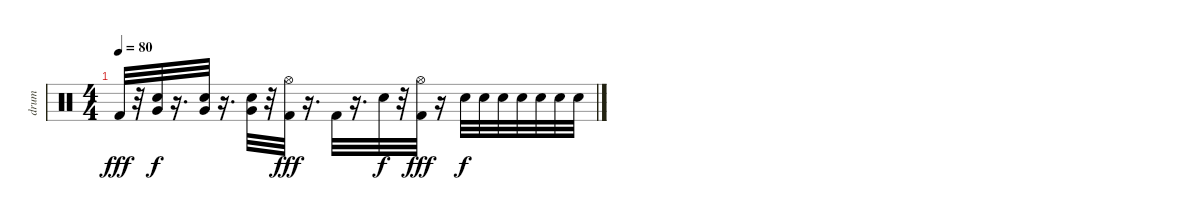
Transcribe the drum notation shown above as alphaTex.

\track ("drum" "drum") {instrument percussion}
\staff {score}
\articulation defaults
\ts (4 4)
\tempo 80
\clef neutral
\ks c "Kick (hit) 2".32{dy fff}
r.32 ("Snare (hit) 2" "Very Low Tom (hit)").32{dy f} r.16{d} ("Snare (hit) 2" "Very Low Tom (hit)").32 r.16{d} ("Snare (hit) 2" "Very Low Tom (hit)").32 r.32 ("Kick (hit) 2" "Hi-Hat (open)").32{dy fff} r.16{d} "Kick (hit) 2".32 r.16{d} "Snare (hit) 2".32{dy f} r.32 ("Kick (hit) 2" "Hi-Hat (open)").32{dy fff} r.16 "Snare (hit) 2".32{dy f} "Snare (hit) 2".32 "Snare (hit) 2".32 "Snare (hit) 2".32 "Snare (hit) 2".32 "Snare (hit) 2".32 "Snare (hit) 2".32
